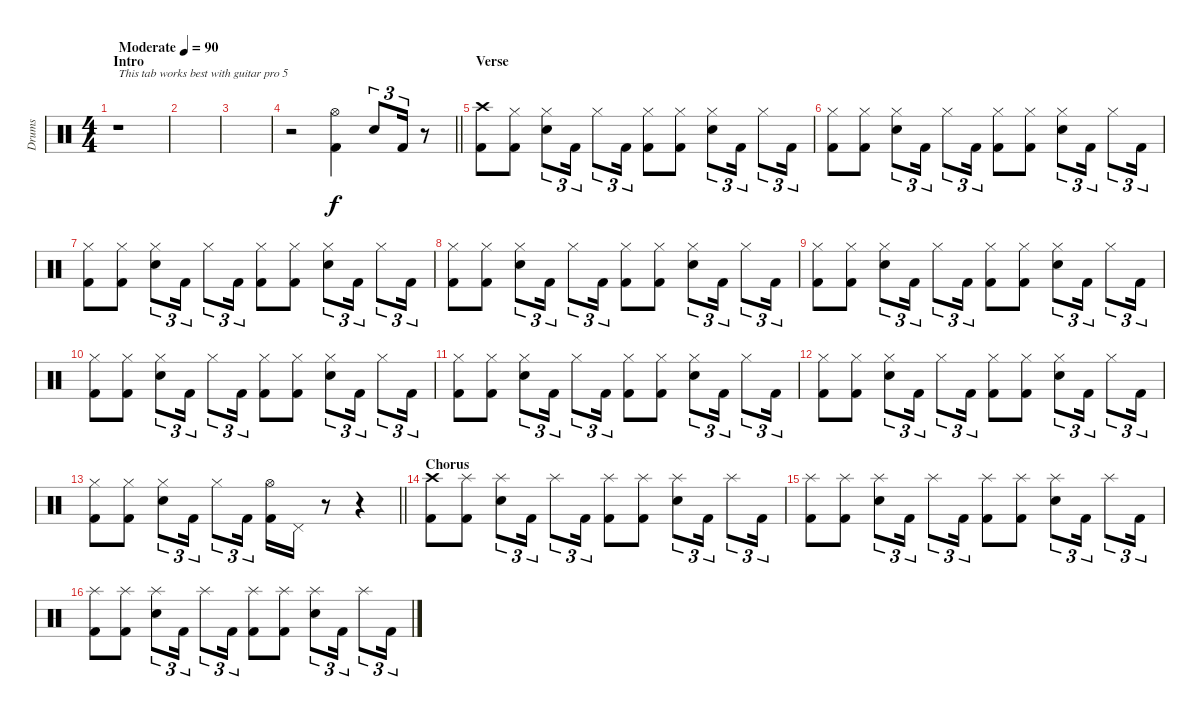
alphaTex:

\track ("Drums" "Drums") {instrument percussion}
\staff {score}
\articulation defaults
\ts (4 4)
\section ("" "Intro")
\tempo (90 "Moderate")
\clef neutral
\ks c
r.1{txt "This tab works best with guitar pro 5" dy f} |
|
|
\barLineRight lightlight
r.2 ("Hi-Hat (open)" "Kick (hit) 2").4 "Electric Snare (hit)".8{tu (3 2)} "Kick (hit) 2".16{tu (3 2)} r.8 |
\section ("" "Verse")
("Crash high (hit)" "Kick (hit) 2").8 ("Hi-Hat (closed)" "Kick (hit) 2").8 ("Hi-Hat (closed)" "Electric Snare (hit)").8{tu (3 2)} "Kick (hit) 2".16{tu (3 2)} "Hi-Hat (closed)".8{tu (3 2)} "Kick (hit) 2".16{tu (3 2)} ("Hi-Hat (closed)" "Kick (hit) 2").8 ("Hi-Hat (closed)" "Kick (hit) 2").8 ("Hi-Hat (closed)" "Electric Snare (hit)").8{tu (3 2)} "Kick (hit) 2".16{tu (3 2)} "Hi-Hat (closed)".8{tu (3 2)} "Kick (hit) 2".16{tu (3 2)} |
("Hi-Hat (closed)" "Kick (hit) 2").8 ("Hi-Hat (closed)" "Kick (hit) 2").8 ("Hi-Hat (closed)" "Electric Snare (hit)").8{tu (3 2)} "Kick (hit) 2".16{tu (3 2)} "Hi-Hat (closed)".8{tu (3 2)} "Kick (hit) 2".16{tu (3 2)} ("Hi-Hat (closed)" "Kick (hit) 2").8 ("Hi-Hat (closed)" "Kick (hit) 2").8 ("Hi-Hat (closed)" "Electric Snare (hit)").8{tu (3 2)} "Kick (hit) 2".16{tu (3 2)} "Hi-Hat (closed)".8{tu (3 2)} "Kick (hit) 2".16{tu (3 2)} |
("Hi-Hat (closed)" "Kick (hit) 2").8 ("Hi-Hat (closed)" "Kick (hit) 2").8 ("Hi-Hat (closed)" "Electric Snare (hit)").8{tu (3 2)} "Kick (hit) 2".16{tu (3 2)} "Hi-Hat (closed)".8{tu (3 2)} "Kick (hit) 2".16{tu (3 2)} ("Hi-Hat (closed)" "Kick (hit) 2").8 ("Hi-Hat (closed)" "Kick (hit) 2").8 ("Hi-Hat (closed)" "Electric Snare (hit)").8{tu (3 2)} "Kick (hit) 2".16{tu (3 2)} "Hi-Hat (closed)".8{tu (3 2)} "Kick (hit) 2".16{tu (3 2)} |
("Hi-Hat (closed)" "Kick (hit) 2").8 ("Hi-Hat (closed)" "Kick (hit) 2").8 ("Hi-Hat (closed)" "Electric Snare (hit)").8{tu (3 2)} "Kick (hit) 2".16{tu (3 2)} "Hi-Hat (closed)".8{tu (3 2)} "Kick (hit) 2".16{tu (3 2)} ("Hi-Hat (closed)" "Kick (hit) 2").8 ("Hi-Hat (closed)" "Kick (hit) 2").8 ("Hi-Hat (closed)" "Electric Snare (hit)").8{tu (3 2)} "Kick (hit) 2".16{tu (3 2)} "Hi-Hat (closed)".8{tu (3 2)} "Kick (hit) 2".16{tu (3 2)} |
("Hi-Hat (closed)" "Kick (hit) 2").8 ("Hi-Hat (closed)" "Kick (hit) 2").8 ("Hi-Hat (closed)" "Electric Snare (hit)").8{tu (3 2)} "Kick (hit) 2".16{tu (3 2)} "Hi-Hat (closed)".8{tu (3 2)} "Kick (hit) 2".16{tu (3 2)} ("Hi-Hat (closed)" "Kick (hit) 2").8 ("Hi-Hat (closed)" "Kick (hit) 2").8 ("Hi-Hat (closed)" "Electric Snare (hit)").8{tu (3 2)} "Kick (hit) 2".16{tu (3 2)} "Hi-Hat (closed)".8{tu (3 2)} "Kick (hit) 2".16{tu (3 2)} |
("Hi-Hat (closed)" "Kick (hit) 2").8 ("Hi-Hat (closed)" "Kick (hit) 2").8 ("Hi-Hat (closed)" "Electric Snare (hit)").8{tu (3 2)} "Kick (hit) 2".16{tu (3 2)} "Hi-Hat (closed)".8{tu (3 2)} "Kick (hit) 2".16{tu (3 2)} ("Hi-Hat (closed)" "Kick (hit) 2").8 ("Hi-Hat (closed)" "Kick (hit) 2").8 ("Hi-Hat (closed)" "Electric Snare (hit)").8{tu (3 2)} "Kick (hit) 2".16{tu (3 2)} "Hi-Hat (closed)".8{tu (3 2)} "Kick (hit) 2".16{tu (3 2)} |
("Hi-Hat (closed)" "Kick (hit) 2").8 ("Hi-Hat (closed)" "Kick (hit) 2").8 ("Hi-Hat (closed)" "Electric Snare (hit)").8{tu (3 2)} "Kick (hit) 2".16{tu (3 2)} "Hi-Hat (closed)".8{tu (3 2)} "Kick (hit) 2".16{tu (3 2)} ("Hi-Hat (closed)" "Kick (hit) 2").8 ("Hi-Hat (closed)" "Kick (hit) 2").8 ("Hi-Hat (closed)" "Electric Snare (hit)").8{tu (3 2)} "Kick (hit) 2".16{tu (3 2)} "Hi-Hat (closed)".8{tu (3 2)} "Kick (hit) 2".16{tu (3 2)} |
("Hi-Hat (closed)" "Kick (hit) 2").8 ("Hi-Hat (closed)" "Kick (hit) 2").8 ("Hi-Hat (closed)" "Electric Snare (hit)").8{tu (3 2)} "Kick (hit) 2".16{tu (3 2)} "Hi-Hat (closed)".8{tu (3 2)} "Kick (hit) 2".16{tu (3 2)} ("Hi-Hat (closed)" "Kick (hit) 2").8 ("Hi-Hat (closed)" "Kick (hit) 2").8 ("Hi-Hat (closed)" "Electric Snare (hit)").8{tu (3 2)} "Kick (hit) 2".16{tu (3 2)} "Hi-Hat (closed)".8{tu (3 2)} "Kick (hit) 2".16{tu (3 2)} |
\barLineRight lightlight
("Hi-Hat (closed)" "Kick (hit) 2").8 ("Hi-Hat (closed)" "Kick (hit) 2").8 ("Hi-Hat (closed)" "Electric Snare (hit)").8{tu (3 2)} "Kick (hit) 2".16{tu (3 2)} "Hi-Hat (closed)".8{tu (3 2)} "Kick (hit) 2".16{tu (3 2)} ("Hi-Hat (open)" "Kick (hit) 2").16 "Pedal Hi-Hat (hit)".16 r.8 r.4 |
\section ("" "Chorus")
("Crash high (hit)" "Kick (hit) 2").8 ("Splash (hit)" "Kick (hit) 2").8 ("Splash (hit)" "Electric Snare (hit)").8{tu (3 2)} "Kick (hit) 2".16{tu (3 2)} "Splash (hit)".8{tu (3 2)} "Kick (hit) 2".16{tu (3 2)} ("Splash (hit)" "Kick (hit) 2").8 ("Splash (hit)" "Kick (hit) 2").8 ("Splash (hit)" "Electric Snare (hit)").8{tu (3 2)} "Kick (hit) 2".16{tu (3 2)} "Splash (hit)".8{tu (3 2)} "Kick (hit) 2".16{tu (3 2)} |
("Splash (hit)" "Kick (hit) 2").8 ("Splash (hit)" "Kick (hit) 2").8 ("Splash (hit)" "Electric Snare (hit)").8{tu (3 2)} "Kick (hit) 2".16{tu (3 2)} "Splash (hit)".8{tu (3 2)} "Kick (hit) 2".16{tu (3 2)} ("Splash (hit)" "Kick (hit) 2").8 ("Splash (hit)" "Kick (hit) 2").8 ("Splash (hit)" "Electric Snare (hit)").8{tu (3 2)} "Kick (hit) 2".16{tu (3 2)} "Splash (hit)".8{tu (3 2)} "Kick (hit) 2".16{tu (3 2)} |
("Splash (hit)" "Kick (hit) 2").8 ("Splash (hit)" "Kick (hit) 2").8 ("Splash (hit)" "Electric Snare (hit)").8{tu (3 2)} "Kick (hit) 2".16{tu (3 2)} "Splash (hit)".8{tu (3 2)} "Kick (hit) 2".16{tu (3 2)} ("Splash (hit)" "Kick (hit) 2").8 ("Splash (hit)" "Kick (hit) 2").8 ("Splash (hit)" "Electric Snare (hit)").8{tu (3 2)} "Kick (hit) 2".16{tu (3 2)} "Splash (hit)".8{tu (3 2)} "Kick (hit) 2".16{tu (3 2)}
